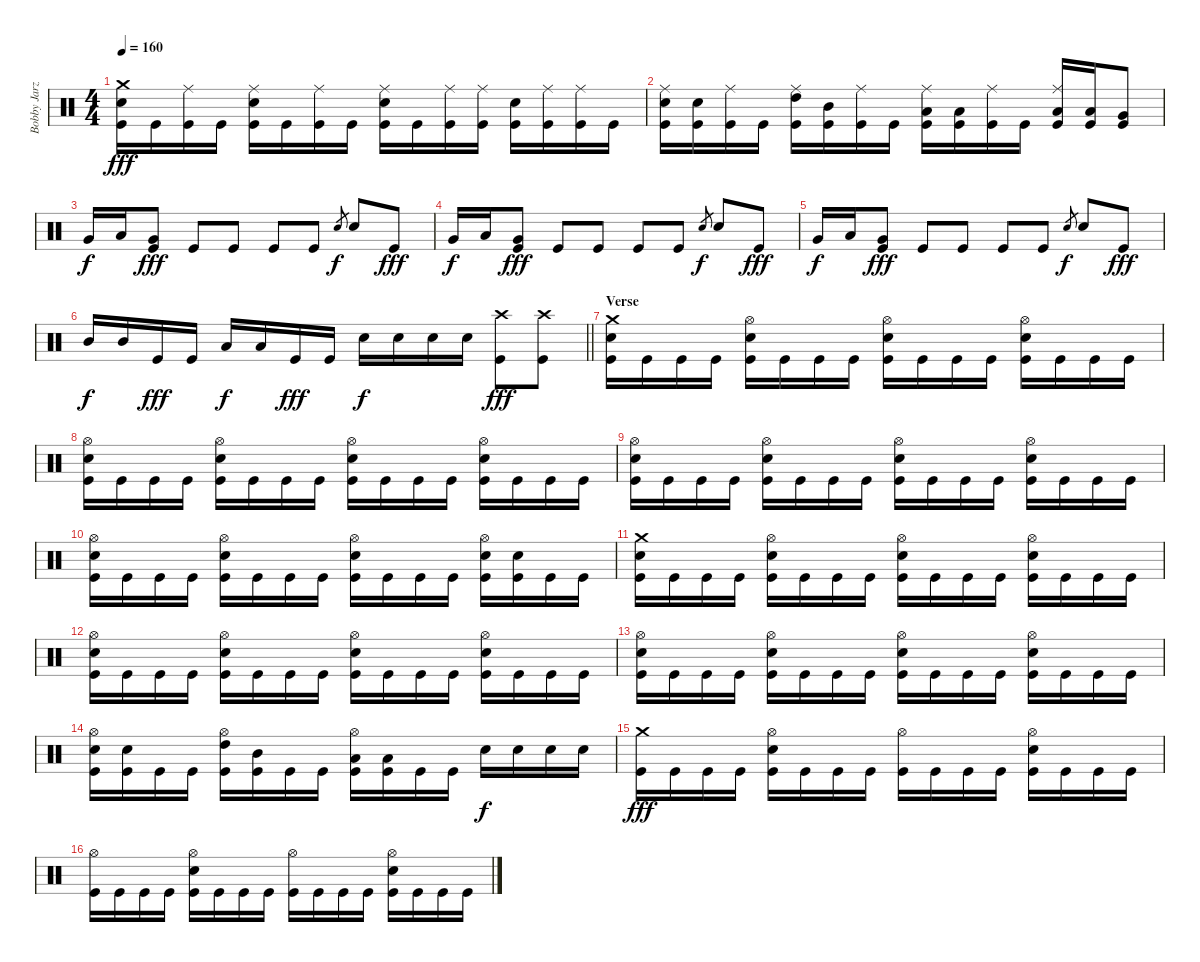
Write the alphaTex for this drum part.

\track ("Bobby Jarzombek" "Bobby Jarz") {instrument percussion}
\staff {score}
\articulation defaults
\ts (4 4)
\tempo 160
\clef neutral
\ks c
("Crash medium (hit)" "Electric Snare (hit)" "Kick (hit)").16{dy fff} "Kick (hit)".16 ("Ride (middle)" "Kick (hit)").16 "Kick (hit)".16 ("Ride (middle)" "Electric Snare (hit)" "Kick (hit)").16 "Kick (hit)".16 ("Ride (middle)" "Kick (hit)").16 "Kick (hit)".16 ("Ride (middle)" "Electric Snare (hit)" "Kick (hit)").16 "Kick (hit)".16 ("Ride (middle)" "Kick (hit)").16 ("Ride (middle)" "Kick (hit)").16 ("Electric Snare (hit)" "Kick (hit)").16 ("Ride (middle)" "Kick (hit)").16 ("Ride (middle)" "Kick (hit)").16 "Kick (hit)".16 |
("Ride (middle)" "Electric Snare (hit)" "Kick (hit)").16 ("Electric Snare (hit)" "Kick (hit)").16 ("Ride (middle)" "Kick (hit)").16 "Kick (hit)".16 ("Ride (middle)" "High Tom (hit)" "Kick (hit)").16 ("Mid Tom (hit)" "Kick (hit)").16 ("Ride (middle)" "Kick (hit)").16 "Kick (hit)".16 ("Ride (middle)" "Low Tom (hit)" "Kick (hit)").16 ("Low Tom (hit)" "Kick (hit)").16 ("Ride (middle)" "Kick (hit)").16 "Kick (hit)".16 ("Ride (middle)" "Low Tom (hit)" "Kick (hit)").16 ("Low Tom (hit)" "Kick (hit)").16 ("Very Low Tom (hit)" "Kick (hit)").8 |
"Very Low Tom (hit)".16{dy f} "Low Tom (hit)".16 ("Very Low Tom (hit)" "Kick (hit)").8{dy fff} "Kick (hit)".8 "Kick (hit)".8 "Kick (hit)".8 "Kick (hit)".8 "Electric Snare (hit)".8{gr dy f} "Electric Snare (hit)".8 "Kick (hit)".8{dy fff} |
"Very Low Tom (hit)".16{dy f} "Low Tom (hit)".16 ("Very Low Tom (hit)" "Kick (hit)").8{dy fff} "Kick (hit)".8 "Kick (hit)".8 "Kick (hit)".8 "Kick (hit)".8 "Electric Snare (hit)".8{gr dy f} "Electric Snare (hit)".8 "Kick (hit)".8{dy fff} |
"Very Low Tom (hit)".16{dy f} "Low Tom (hit)".16 ("Very Low Tom (hit)" "Kick (hit)").8{dy fff} "Kick (hit)".8 "Kick (hit)".8 "Kick (hit)".8 "Kick (hit)".8 "Electric Snare (hit)".8{gr dy f} "Electric Snare (hit)".8 "Kick (hit)".8{dy fff} |
\barLineRight lightlight "Mid Tom (hit)".16{dy f} "Mid Tom (hit)".16 "Kick (hit)".16{dy fff} "Kick (hit)".16 "Low Tom (hit)".16{dy f} "Low Tom (hit)".16 "Kick (hit)".16{dy fff} "Kick (hit)".16 "Electric Snare (hit)".16{dy f} "Electric Snare (hit)".16 "Electric Snare (hit)".16 "Electric Snare (hit)".16
("Crash high (hit)" "Kick (hit)").8{dy fff} ("Crash high (hit)" "Kick (hit)").8 |
\section ("" "Verse")
("Crash medium (hit)" "Electric Snare (hit)" "Kick (hit)").16 "Kick (hit)".16 "Kick (hit)".16 "Kick (hit)".16 ("Hi-Hat (open)" "Electric Snare (hit)" "Kick (hit)").16 "Kick (hit)".16 "Kick (hit)".16 "Kick (hit)".16 ("Hi-Hat (open)" "Electric Snare (hit)" "Kick (hit)").16 "Kick (hit)".16 "Kick (hit)".16 "Kick (hit)".16 ("Hi-Hat (open)" "Electric Snare (hit)" "Kick (hit)").16 "Kick (hit)".16 "Kick (hit)".16 "Kick (hit)".16 |
("Hi-Hat (open)" "Electric Snare (hit)" "Kick (hit)").16 "Kick (hit)".16 "Kick (hit)".16 "Kick (hit)".16 ("Hi-Hat (open)" "Electric Snare (hit)" "Kick (hit)").16 "Kick (hit)".16 "Kick (hit)".16 "Kick (hit)".16 ("Hi-Hat (open)" "Electric Snare (hit)" "Kick (hit)").16 "Kick (hit)".16 "Kick (hit)".16 "Kick (hit)".16 ("Hi-Hat (open)" "Electric Snare (hit)" "Kick (hit)").16 "Kick (hit)".16 "Kick (hit)".16 "Kick (hit)".16 |
("Hi-Hat (open)" "Electric Snare (hit)" "Kick (hit)").16 "Kick (hit)".16 "Kick (hit)".16 "Kick (hit)".16 ("Hi-Hat (open)" "Electric Snare (hit)" "Kick (hit)").16 "Kick (hit)".16 "Kick (hit)".16 "Kick (hit)".16 ("Hi-Hat (open)" "Electric Snare (hit)" "Kick (hit)").16 "Kick (hit)".16 "Kick (hit)".16 "Kick (hit)".16 ("Hi-Hat (open)" "Electric Snare (hit)" "Kick (hit)").16 "Kick (hit)".16 "Kick (hit)".16 "Kick (hit)".16 |
("Hi-Hat (open)" "Electric Snare (hit)" "Kick (hit)").16 "Kick (hit)".16 "Kick (hit)".16 "Kick (hit)".16 ("Hi-Hat (open)" "Electric Snare (hit)" "Kick (hit)").16 "Kick (hit)".16 "Kick (hit)".16 "Kick (hit)".16 ("Hi-Hat (open)" "Electric Snare (hit)" "Kick (hit)").16 "Kick (hit)".16 "Kick (hit)".16 "Kick (hit)".16 ("Hi-Hat (open)" "Electric Snare (hit)" "Kick (hit)").16 ("Electric Snare (hit)" "Kick (hit)").16 "Kick (hit)".16 "Kick (hit)".16 |
("Crash medium (hit)" "Electric Snare (hit)" "Kick (hit)").16 "Kick (hit)".16 "Kick (hit)".16 "Kick (hit)".16 ("Hi-Hat (open)" "Electric Snare (hit)" "Kick (hit)").16 "Kick (hit)".16 "Kick (hit)".16 "Kick (hit)".16 ("Hi-Hat (open)" "Electric Snare (hit)" "Kick (hit)").16 "Kick (hit)".16 "Kick (hit)".16 "Kick (hit)".16 ("Hi-Hat (open)" "Electric Snare (hit)" "Kick (hit)").16 "Kick (hit)".16 "Kick (hit)".16 "Kick (hit)".16 |
("Hi-Hat (open)" "Electric Snare (hit)" "Kick (hit)").16 "Kick (hit)".16 "Kick (hit)".16 "Kick (hit)".16 ("Hi-Hat (open)" "Electric Snare (hit)" "Kick (hit)").16 "Kick (hit)".16 "Kick (hit)".16 "Kick (hit)".16 ("Hi-Hat (open)" "Electric Snare (hit)" "Kick (hit)").16 "Kick (hit)".16 "Kick (hit)".16 "Kick (hit)".16 ("Hi-Hat (open)" "Electric Snare (hit)" "Kick (hit)").16 "Kick (hit)".16 "Kick (hit)".16 "Kick (hit)".16 |
("Hi-Hat (open)" "Electric Snare (hit)" "Kick (hit)").16 "Kick (hit)".16 "Kick (hit)".16 "Kick (hit)".16 ("Hi-Hat (open)" "Electric Snare (hit)" "Kick (hit)").16 "Kick (hit)".16 "Kick (hit)".16 "Kick (hit)".16 ("Hi-Hat (open)" "Electric Snare (hit)" "Kick (hit)").16 "Kick (hit)".16 "Kick (hit)".16 "Kick (hit)".16 ("Hi-Hat (open)" "Electric Snare (hit)" "Kick (hit)").16 "Kick (hit)".16 "Kick (hit)".16 "Kick (hit)".16 |
("Hi-Hat (open)" "Electric Snare (hit)" "Kick (hit)").16 ("Electric Snare (hit)" "Kick (hit)").16 "Kick (hit)".16 "Kick (hit)".16 ("Hi-Hat (open)" "High Tom (hit)" "Kick (hit)").16 ("Mid Tom (hit)" "Kick (hit)").16 "Kick (hit)".16 "Kick (hit)".16 ("Hi-Hat (open)" "Low Tom (hit)" "Kick (hit)").16 ("Low Tom (hit)" "Kick (hit)").16 "Kick (hit)".16 "Kick (hit)".16 "Electric Snare (hit)".16{dy f} "Electric Snare (hit)".16 "Electric Snare (hit)".16 "Electric Snare (hit)".16 |
("Crash medium (hit)" "Kick (hit)").16{dy fff} "Kick (hit)".16 "Kick (hit)".16 "Kick (hit)".16 ("Hi-Hat (open)" "Electric Snare (hit)" "Kick (hit)").16 "Kick (hit)".16 "Kick (hit)".16 "Kick (hit)".16 ("Hi-Hat (open)" "Kick (hit)").16 "Kick (hit)".16 "Kick (hit)".16 "Kick (hit)".16 ("Hi-Hat (open)" "Electric Snare (hit)" "Kick (hit)").16 "Kick (hit)".16 "Kick (hit)".16 "Kick (hit)".16 |
("Hi-Hat (open)" "Kick (hit)").16 "Kick (hit)".16 "Kick (hit)".16 "Kick (hit)".16 ("Hi-Hat (open)" "Electric Snare (hit)" "Kick (hit)").16 "Kick (hit)".16 "Kick (hit)".16 "Kick (hit)".16 ("Hi-Hat (open)" "Kick (hit)").16 "Kick (hit)".16 "Kick (hit)".16 "Kick (hit)".16 ("Hi-Hat (open)" "Electric Snare (hit)" "Kick (hit)").16 "Kick (hit)".16 "Kick (hit)".16 "Kick (hit)".16
